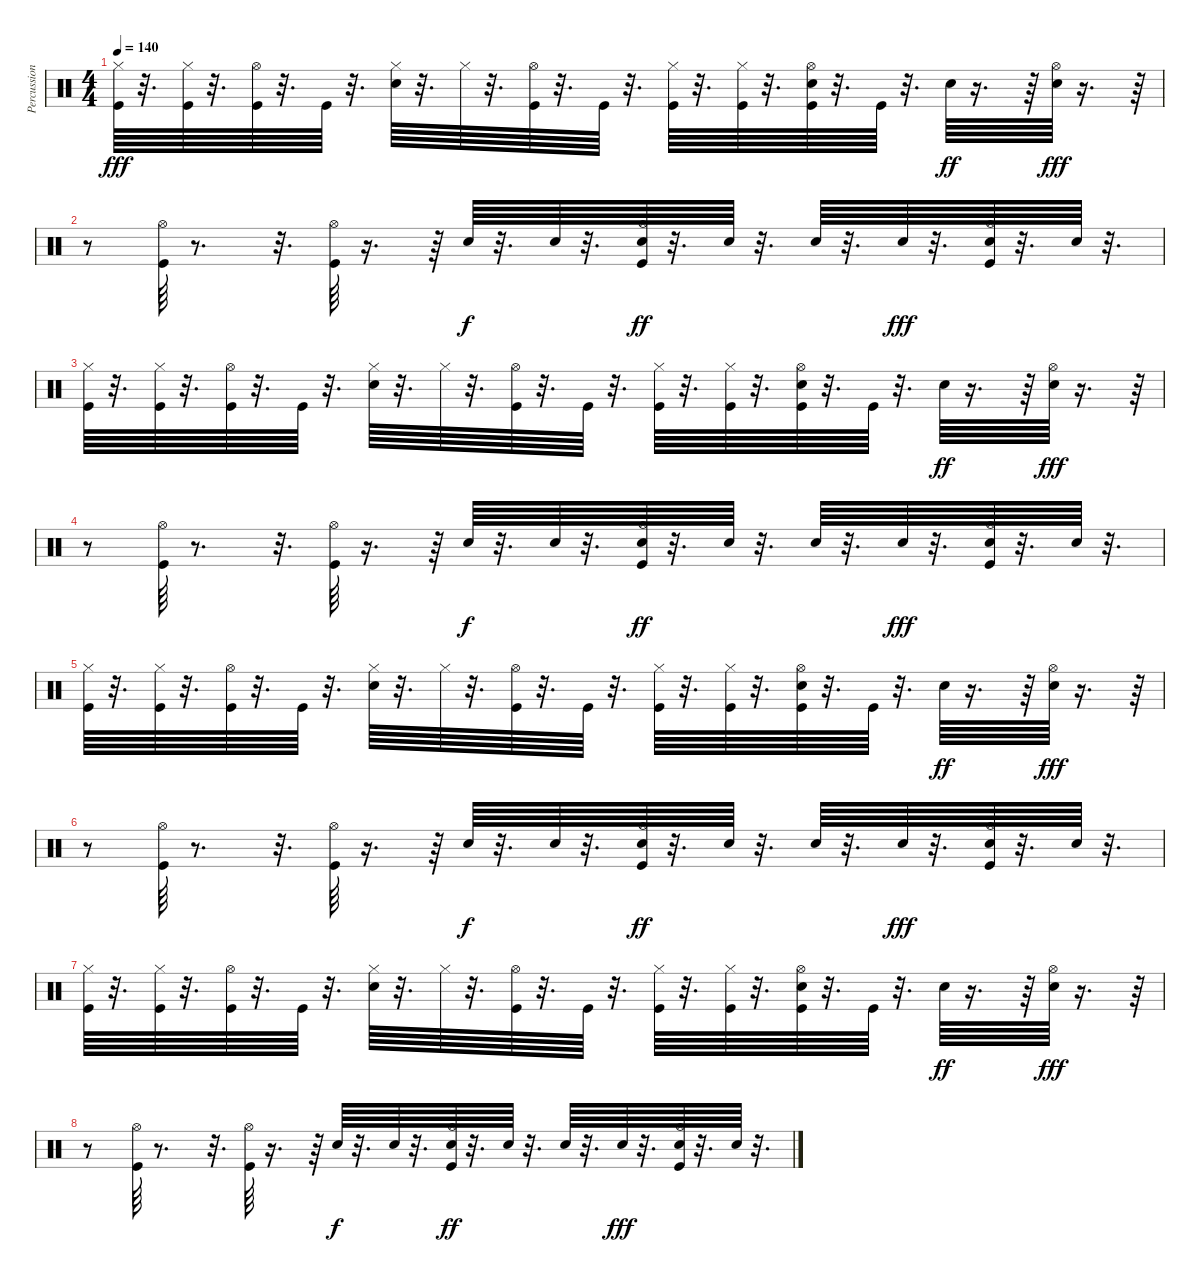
\track ("Percussion [Room Kit]" "Percussion") {instrument percussion}
\staff {score}
\articulation defaults
\ts (4 4)
\tempo 140
\clef neutral
\ks c
("Hi-Hat (closed)" "Kick (hit)").64{dy fff} r.32{d} ("Hi-Hat (closed)" "Kick (hit)").64 r.32{d} ("Hi-Hat (open)" "Kick (hit)").64 r.32{d} "Kick (hit)".64 r.32{d} ("Hi-Hat (closed)" "Electric Snare (hit)").64 r.32{d} "Hi-Hat (closed)".64 r.32{d} ("Hi-Hat (open)" "Kick (hit)").64 r.32{d} "Kick (hit)".64 r.32{d} ("Hi-Hat (closed)" "Kick (hit)").64 r.32{d} ("Hi-Hat (closed)" "Kick (hit)").64 r.32{d} ("Hi-Hat (open)" "Kick (hit)" "Electric Snare (hit)").64 r.32{d} "Kick (hit)".64 r.32{d} "Electric Snare (hit)".64{dy ff} r.16{d} r.64 ("Hi-Hat (open)" "Electric Snare (hit)").64{dy fff} r.16{d} r.64 |
r.8 ("Kick (hit)" "Hi-Hat (open)").64 r.8{d} r.32{d} ("Kick (hit)" "Hi-Hat (open)").64 r.16{d} r.64 "Electric Snare (hit)".64{dy f} r.32{d} "Electric Snare (hit)".64 r.32{d} ("Kick (hit)" "Hi-Hat (open)" "Electric Snare (hit)").64{dy ff} r.32{d} "Electric Snare (hit)".64 r.32{d} "Electric Snare (hit)".64 r.32{d} "Electric Snare (hit)".64{dy fff} r.32{d} ("Kick (hit)" "Hi-Hat (open)" "Electric Snare (hit)").64 r.32{d} "Electric Snare (hit)".64 r.32{d} |
("Hi-Hat (closed)" "Kick (hit)").64 r.32{d} ("Hi-Hat (closed)" "Kick (hit)").64 r.32{d} ("Hi-Hat (open)" "Kick (hit)").64 r.32{d} "Kick (hit)".64 r.32{d} ("Hi-Hat (closed)" "Electric Snare (hit)").64 r.32{d} "Hi-Hat (closed)".64 r.32{d} ("Hi-Hat (open)" "Kick (hit)").64 r.32{d} "Kick (hit)".64 r.32{d} ("Hi-Hat (closed)" "Kick (hit)").64 r.32{d} ("Hi-Hat (closed)" "Kick (hit)").64 r.32{d} ("Hi-Hat (open)" "Kick (hit)" "Electric Snare (hit)").64 r.32{d} "Kick (hit)".64 r.32{d} "Electric Snare (hit)".64{dy ff} r.16{d} r.64 ("Hi-Hat (open)" "Electric Snare (hit)").64{dy fff} r.16{d} r.64 |
r.8 ("Kick (hit)" "Hi-Hat (open)").64 r.8{d} r.32{d} ("Kick (hit)" "Hi-Hat (open)").64 r.16{d} r.64 "Electric Snare (hit)".64{dy f} r.32{d} "Electric Snare (hit)".64 r.32{d} ("Kick (hit)" "Hi-Hat (open)" "Electric Snare (hit)").64{dy ff} r.32{d} "Electric Snare (hit)".64 r.32{d} "Electric Snare (hit)".64 r.32{d} "Electric Snare (hit)".64{dy fff} r.32{d} ("Kick (hit)" "Hi-Hat (open)" "Electric Snare (hit)").64 r.32{d} "Electric Snare (hit)".64 r.32{d} |
("Hi-Hat (closed)" "Kick (hit)").64 r.32{d} ("Hi-Hat (closed)" "Kick (hit)").64 r.32{d} ("Hi-Hat (open)" "Kick (hit)").64 r.32{d} "Kick (hit)".64 r.32{d} ("Hi-Hat (closed)" "Electric Snare (hit)").64 r.32{d} "Hi-Hat (closed)".64 r.32{d} ("Hi-Hat (open)" "Kick (hit)").64 r.32{d} "Kick (hit)".64 r.32{d} ("Hi-Hat (closed)" "Kick (hit)").64 r.32{d} ("Hi-Hat (closed)" "Kick (hit)").64 r.32{d} ("Hi-Hat (open)" "Kick (hit)" "Electric Snare (hit)").64 r.32{d} "Kick (hit)".64 r.32{d} "Electric Snare (hit)".64{dy ff} r.16{d} r.64 ("Hi-Hat (open)" "Electric Snare (hit)").64{dy fff} r.16{d} r.64 |
r.8 ("Kick (hit)" "Hi-Hat (open)").64 r.8{d} r.32{d} ("Kick (hit)" "Hi-Hat (open)").64 r.16{d} r.64 "Electric Snare (hit)".64{dy f} r.32{d} "Electric Snare (hit)".64 r.32{d} ("Kick (hit)" "Hi-Hat (open)" "Electric Snare (hit)").64{dy ff} r.32{d} "Electric Snare (hit)".64 r.32{d} "Electric Snare (hit)".64 r.32{d} "Electric Snare (hit)".64{dy fff} r.32{d} ("Kick (hit)" "Hi-Hat (open)" "Electric Snare (hit)").64 r.32{d} "Electric Snare (hit)".64 r.32{d} |
("Hi-Hat (closed)" "Kick (hit)").64 r.32{d} ("Hi-Hat (closed)" "Kick (hit)").64 r.32{d} ("Hi-Hat (open)" "Kick (hit)").64 r.32{d} "Kick (hit)".64 r.32{d} ("Hi-Hat (closed)" "Electric Snare (hit)").64 r.32{d} "Hi-Hat (closed)".64 r.32{d} ("Hi-Hat (open)" "Kick (hit)").64 r.32{d} "Kick (hit)".64 r.32{d} ("Hi-Hat (closed)" "Kick (hit)").64 r.32{d} ("Hi-Hat (closed)" "Kick (hit)").64 r.32{d} ("Hi-Hat (open)" "Kick (hit)" "Electric Snare (hit)").64 r.32{d} "Kick (hit)".64 r.32{d} "Electric Snare (hit)".64{dy ff} r.16{d} r.64 ("Hi-Hat (open)" "Electric Snare (hit)").64{dy fff} r.16{d} r.64 |
r.8 ("Kick (hit)" "Hi-Hat (open)").64 r.8{d} r.32{d} ("Kick (hit)" "Hi-Hat (open)").64 r.16{d} r.64 "Electric Snare (hit)".64{dy f} r.32{d} "Electric Snare (hit)".64 r.32{d} ("Kick (hit)" "Hi-Hat (open)" "Electric Snare (hit)").64{dy ff} r.32{d} "Electric Snare (hit)".64 r.32{d} "Electric Snare (hit)".64 r.32{d} "Electric Snare (hit)".64{dy fff} r.32{d} ("Kick (hit)" "Hi-Hat (open)" "Electric Snare (hit)").64 r.32{d} "Electric Snare (hit)".64 r.32{d}
